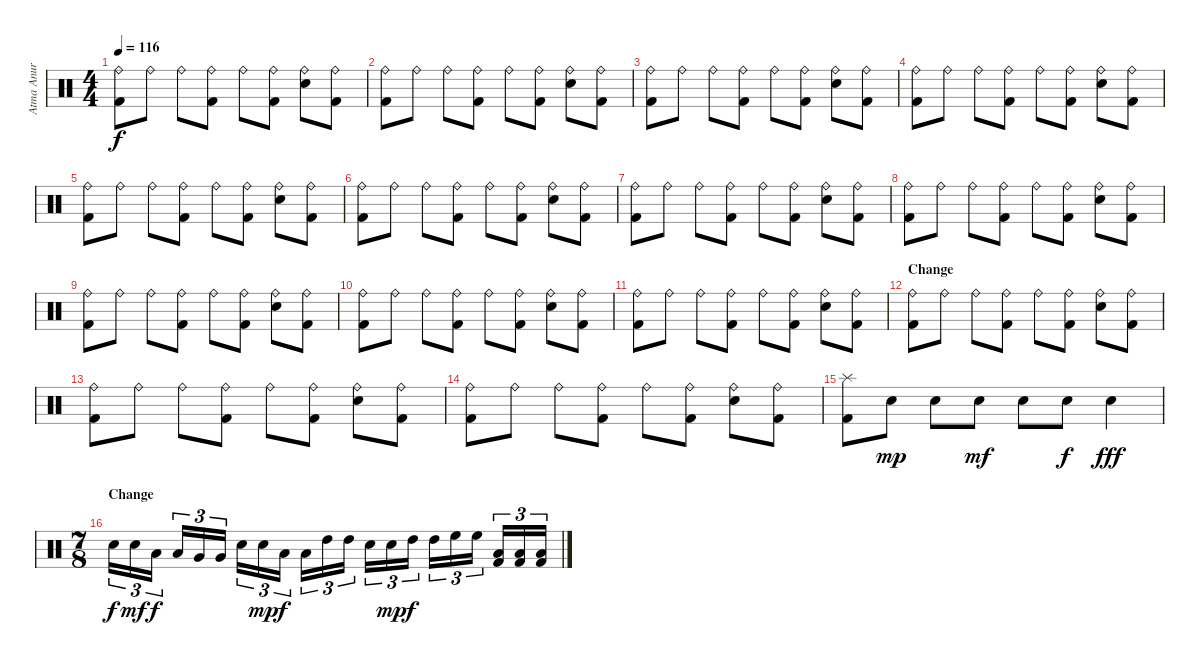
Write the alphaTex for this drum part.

\track ("Atma Anur " "Atma Anur ") {instrument percussion}
\staff {score}
\articulation defaults
\ts (4 4)
\tempo 116
\clef neutral
\ks c
("Ride (bell)" "Kick (hit) 2").8{dy f} "Ride (bell)".8 "Ride (bell)".8 ("Ride (bell)" "Kick (hit) 2").8 "Ride (bell)".8 ("Ride (bell)" "Kick (hit) 2").8 ("Ride (bell)" "Snare (hit) 2").8 ("Ride (bell)" "Kick (hit) 2").8 |
("Ride (bell)" "Kick (hit) 2").8 "Ride (bell)".8 "Ride (bell)".8 ("Ride (bell)" "Kick (hit) 2").8 "Ride (bell)".8 ("Ride (bell)" "Kick (hit) 2").8 ("Ride (bell)" "Snare (hit) 2").8 ("Ride (bell)" "Kick (hit) 2").8 |
("Ride (bell)" "Kick (hit) 2").8 "Ride (bell)".8 "Ride (bell)".8 ("Ride (bell)" "Kick (hit) 2").8 "Ride (bell)".8 ("Ride (bell)" "Kick (hit) 2").8 ("Ride (bell)" "Snare (hit) 2").8 ("Ride (bell)" "Kick (hit) 2").8 |
("Ride (bell)" "Kick (hit) 2").8 "Ride (bell)".8 "Ride (bell)".8 ("Ride (bell)" "Kick (hit) 2").8 "Ride (bell)".8 ("Ride (bell)" "Kick (hit) 2").8 ("Ride (bell)" "Snare (hit) 2").8 ("Ride (bell)" "Kick (hit) 2").8 |
("Ride (bell)" "Kick (hit) 2").8 "Ride (bell)".8 "Ride (bell)".8 ("Ride (bell)" "Kick (hit) 2").8 "Ride (bell)".8 ("Ride (bell)" "Kick (hit) 2").8 ("Ride (bell)" "Snare (hit) 2").8 ("Ride (bell)" "Kick (hit) 2").8 |
("Ride (bell)" "Kick (hit) 2").8 "Ride (bell)".8 "Ride (bell)".8 ("Ride (bell)" "Kick (hit) 2").8 "Ride (bell)".8 ("Ride (bell)" "Kick (hit) 2").8 ("Ride (bell)" "Snare (hit) 2").8 ("Ride (bell)" "Kick (hit) 2").8 |
("Ride (bell)" "Kick (hit) 2").8 "Ride (bell)".8 "Ride (bell)".8 ("Ride (bell)" "Kick (hit) 2").8 "Ride (bell)".8 ("Ride (bell)" "Kick (hit) 2").8 ("Ride (bell)" "Snare (hit) 2").8 ("Ride (bell)" "Kick (hit) 2").8 |
("Ride (bell)" "Kick (hit) 2").8 "Ride (bell)".8 "Ride (bell)".8 ("Ride (bell)" "Kick (hit) 2").8 "Ride (bell)".8 ("Ride (bell)" "Kick (hit) 2").8 ("Ride (bell)" "Snare (hit) 2").8 ("Ride (bell)" "Kick (hit) 2").8 |
("Ride (bell)" "Kick (hit) 2").8 "Ride (bell)".8 "Ride (bell)".8 ("Ride (bell)" "Kick (hit) 2").8 "Ride (bell)".8 ("Ride (bell)" "Kick (hit) 2").8 ("Ride (bell)" "Snare (hit) 2").8 ("Ride (bell)" "Kick (hit) 2").8 |
("Ride (bell)" "Kick (hit) 2").8 "Ride (bell)".8 "Ride (bell)".8 ("Ride (bell)" "Kick (hit) 2").8 "Ride (bell)".8 ("Ride (bell)" "Kick (hit) 2").8 ("Ride (bell)" "Snare (hit) 2").8 ("Ride (bell)" "Kick (hit) 2").8 |
("Ride (bell)" "Kick (hit) 2").8 "Ride (bell)".8 "Ride (bell)".8 ("Ride (bell)" "Kick (hit) 2").8 "Ride (bell)".8 ("Ride (bell)" "Kick (hit) 2").8 ("Ride (bell)" "Snare (hit) 2").8 ("Ride (bell)" "Kick (hit) 2").8 |
\section ("" "Change")
("Ride (bell)" "Kick (hit) 2").8 "Ride (bell)".8 "Ride (bell)".8 ("Ride (bell)" "Kick (hit) 2").8 "Ride (bell)".8 ("Ride (bell)" "Kick (hit) 2").8 ("Ride (bell)" "Snare (hit) 2").8 ("Ride (bell)" "Kick (hit) 2").8 |
("Ride (bell)" "Kick (hit) 2").8 "Ride (bell)".8 "Ride (bell)".8 ("Ride (bell)" "Kick (hit) 2").8 "Ride (bell)".8 ("Ride (bell)" "Kick (hit) 2").8 ("Ride (bell)" "Snare (hit) 2").8 ("Ride (bell)" "Kick (hit) 2").8 |
("Ride (bell)" "Kick (hit) 2").8 "Ride (bell)".8 "Ride (bell)".8 ("Ride (bell)" "Kick (hit) 2").8 "Ride (bell)".8 ("Ride (bell)" "Kick (hit) 2").8 ("Ride (bell)" "Snare (hit) 2").8 ("Ride (bell)" "Kick (hit) 2").8 |
("Splash (hit)" "Kick (hit) 2").8 "Snare (hit) 2".8{dy mp} "Snare (hit) 2".8 "Snare (hit) 2".8{dy mf} "Snare (hit) 2".8 "Snare (hit) 2".8{dy f} "Snare (hit) 2".4{dy fff} |
\ts (7 8)
\section ("" "Change")
"Snare (hit) 2".16{tu (3 2) dy f} "Snare (hit) 2".16{tu (3 2) dy mf} "Low Tom (hit)".16{tu (3 2) dy f} "Low Tom (hit)".16{tu (3 2)} "Very Low Tom (hit)".16{tu (3 2)} "Very Low Tom (hit)".16{tu (3 2)} "Snare (hit) 2".16{tu (3 2)} "Snare (hit) 2".16{tu (3 2) dy mp} "Low Tom (hit)".16{tu (3 2) dy f} "Low Tom (hit)".16{tu (3 2)} "High Tom (hit)".16{tu (3 2)} "High Tom (hit)".16{tu (3 2)} "Snare (hit) 2".16{tu (3 2)} "Snare (hit) 2".16{tu (3 2) dy mp} "High Tom (hit)".16{tu (3 2) dy f} "High Tom (hit)".16{tu (3 2)} "High Floor Tom (hit)".16{tu (3 2)} "High Floor Tom (hit)".16{tu (3 2)} ("Low Tom (hit)" "Kick (hit) 2").16{tu (3 2)} ("Low Tom (hit)" "Kick (hit) 2").16{tu (3 2)} ("Low Tom (hit)" "Kick (hit) 2").16{tu (3 2)}
